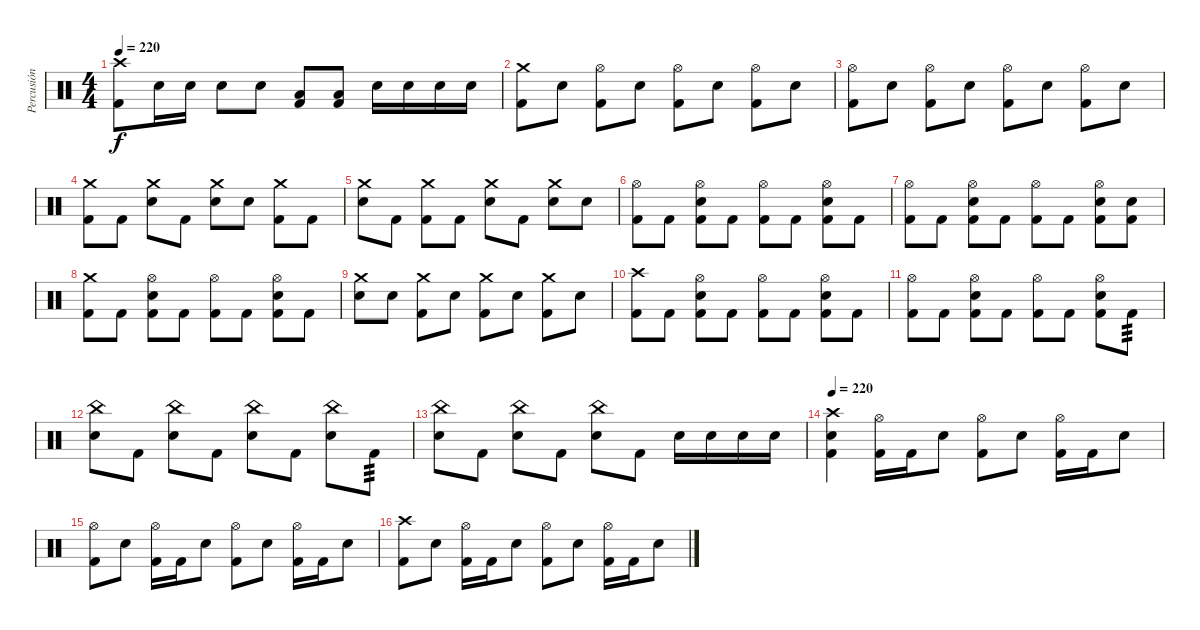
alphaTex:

\track ("Percusión" "Percusión") {instrument percussion}
\staff {score}
\articulation defaults
\ts (4 4)
\tempo 220
\clef neutral
\ks c
("Crash high (hit)" "Kick (hit) 2").8{dy f} "Electric Snare (hit)".16 "Electric Snare (hit)".16 "Electric Snare (hit)".8 "Electric Snare (hit)".8 ("Low Tom (hit)" "Kick (hit) 2").8 ("Low Tom (hit)" "Kick (hit) 2").8 "Electric Snare (hit)".16 "Electric Snare (hit)".16 "Electric Snare (hit)".16 "Electric Snare (hit)".16 |
("Crash medium (hit)" "Kick (hit) 2").8 "Electric Snare (hit)".8 ("Hi-Hat (open)" "Kick (hit) 2").8 "Electric Snare (hit)".8 ("Hi-Hat (open)" "Kick (hit) 2").8 "Electric Snare (hit)".8 ("Hi-Hat (open)" "Kick (hit) 2").8 "Electric Snare (hit)".8 |
("Hi-Hat (open)" "Kick (hit) 2").8 "Electric Snare (hit)".8 ("Hi-Hat (open)" "Kick (hit) 2").8 "Electric Snare (hit)".8 ("Hi-Hat (open)" "Kick (hit) 2").8 "Electric Snare (hit)".8 ("Hi-Hat (open)" "Kick (hit) 2").8 "Electric Snare (hit)".8 |
("Crash medium (hit)" "Kick (hit) 2").8 "Kick (hit) 2".8 ("Crash medium (hit)" "Electric Snare (hit)").8 "Kick (hit) 2".8 ("Crash medium (hit)" "Electric Snare (hit)").8 "Electric Snare (hit)".8 ("Crash medium (hit)" "Kick (hit) 2").8 "Kick (hit) 2".8 |
("Crash medium (hit)" "Electric Snare (hit)").8 "Kick (hit) 2".8 ("Crash medium (hit)" "Kick (hit) 2").8 "Kick (hit) 2".8 ("Crash medium (hit)" "Electric Snare (hit)").8 "Kick (hit) 2".8 ("Crash medium (hit)" "Electric Snare (hit)").8 "Electric Snare (hit)".8 |
("Hi-Hat (open)" "Kick (hit) 2").8 "Kick (hit) 2".8 ("Hi-Hat (open)" "Electric Snare (hit)" "Kick (hit) 2").8 "Kick (hit) 2".8 ("Hi-Hat (open)" "Kick (hit) 2").8 "Kick (hit) 2".8 ("Hi-Hat (open)" "Electric Snare (hit)" "Kick (hit) 2").8 "Kick (hit) 2".8 |
("Hi-Hat (open)" "Kick (hit) 2").8 "Kick (hit) 2".8 ("Hi-Hat (open)" "Electric Snare (hit)" "Kick (hit) 2").8 "Kick (hit) 2".8 ("Hi-Hat (open)" "Kick (hit) 2").8 "Kick (hit) 2".8 ("Hi-Hat (open)" "Electric Snare (hit)" "Kick (hit) 2").8 ("Electric Snare (hit)" "Kick (hit) 2").8 |
("Crash medium (hit)" "Kick (hit) 2").8 "Kick (hit) 2".8 ("Hi-Hat (open)" "Electric Snare (hit)" "Kick (hit) 2").8 "Kick (hit) 2".8 ("Hi-Hat (open)" "Kick (hit) 2").8 "Kick (hit) 2".8 ("Hi-Hat (open)" "Electric Snare (hit)" "Kick (hit) 2").8 "Kick (hit) 2".8 |
("Crash medium (hit)" "Electric Snare (hit)").8 "Electric Snare (hit)".8 ("Crash medium (hit)" "Kick (hit) 2").8 "Electric Snare (hit)".8 ("Crash medium (hit)" "Kick (hit) 2").8 "Electric Snare (hit)".8 ("Crash medium (hit)" "Kick (hit) 2").8 "Electric Snare (hit)".8 |
("Crash high (hit)" "Kick (hit) 2").8 "Kick (hit) 2".8 ("Hi-Hat (open)" "Electric Snare (hit)" "Kick (hit) 2").8 "Kick (hit) 2".8 ("Hi-Hat (open)" "Kick (hit) 2").8 "Kick (hit) 2".8 ("Hi-Hat (open)" "Electric Snare (hit)" "Kick (hit) 2").8 "Kick (hit) 2".8 |
("Hi-Hat (open)" "Kick (hit) 2").8 "Kick (hit) 2".8 ("Hi-Hat (open)" "Electric Snare (hit)" "Kick (hit) 2").8 "Kick (hit) 2".8 ("Hi-Hat (open)" "Kick (hit) 2").8 "Kick (hit) 2".8 ("Hi-Hat (open)" "Electric Snare (hit)" "Kick (hit) 2").8 "Kick (hit) 2".8{tp 3} |
("China (hit)" "Electric Snare (hit)").8 "Kick (hit) 2".8 ("China (hit)" "Electric Snare (hit)").8 "Kick (hit) 2".8 ("China (hit)" "Electric Snare (hit)").8 "Kick (hit) 2".8 ("China (hit)" "Electric Snare (hit)").8 "Kick (hit) 2".8{tp 3} |
("China (hit)" "Electric Snare (hit)").8 "Kick (hit) 2".8 ("China (hit)" "Electric Snare (hit)").8 "Kick (hit) 2".8 ("China (hit)" "Electric Snare (hit)").8 "Kick (hit) 2".8 "Electric Snare (hit)".16 "Electric Snare (hit)".16 "Electric Snare (hit)".16 "Electric Snare (hit)".16 |
\tempo 220
("Crash high (hit)" "Electric Snare (hit)" "Kick (hit) 2").4 ("Hi-Hat (open)" "Kick (hit) 2").16 "Kick (hit) 2".16 "Electric Snare (hit)".8 ("Hi-Hat (open)" "Kick (hit) 2").8 "Electric Snare (hit)".8 ("Hi-Hat (open)" "Kick (hit) 2").16 "Kick (hit) 2".16 "Electric Snare (hit)".8 |
("Hi-Hat (open)" "Kick (hit) 2").8 "Electric Snare (hit)".8 ("Hi-Hat (open)" "Kick (hit) 2").16 "Kick (hit) 2".16 "Electric Snare (hit)".8 ("Hi-Hat (open)" "Kick (hit) 2").8 "Electric Snare (hit)".8 ("Hi-Hat (open)" "Kick (hit) 2").16 "Kick (hit) 2".16 "Electric Snare (hit)".8 |
("Crash high (hit)" "Kick (hit) 2").8 "Electric Snare (hit)".8 ("Hi-Hat (open)" "Kick (hit) 2").16 "Kick (hit) 2".16 "Electric Snare (hit)".8 ("Hi-Hat (open)" "Kick (hit) 2").8 "Electric Snare (hit)".8 ("Hi-Hat (open)" "Kick (hit) 2").16 "Kick (hit) 2".16 "Electric Snare (hit)".8
